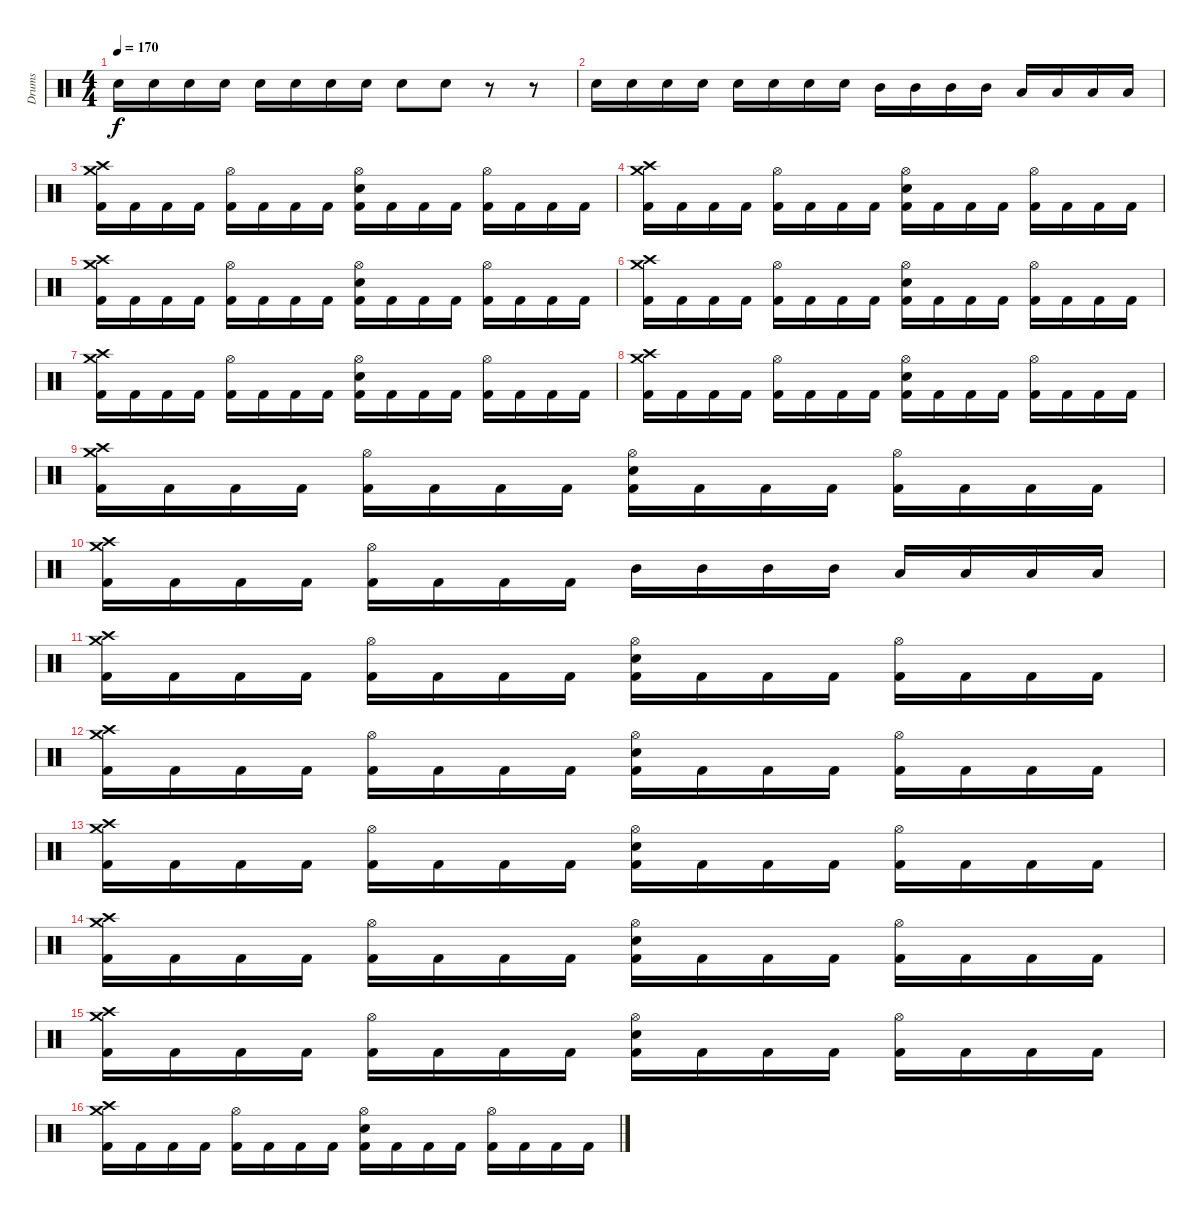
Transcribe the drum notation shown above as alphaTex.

\track ("Drums" "Drums") {instrument percussion}
\staff {score}
\articulation defaults
\ts (4 4)
\tempo 170
\clef neutral
\ks c "Snare (hit) 2".16{dy f} "Snare (hit) 2".16 "Snare (hit) 2".16 "Snare (hit) 2".16 "Snare (hit) 2".16 "Snare (hit) 2".16 "Snare (hit) 2".16 "Snare (hit) 2".16 "Snare (hit) 2".8 "Snare (hit) 2".8
r.8 r.8 |
"Snare (hit) 2".16 "Snare (hit) 2".16 "Snare (hit) 2".16 "Snare (hit) 2".16 "Snare (hit) 2".16 "Snare (hit) 2".16 "Snare (hit) 2".16 "Snare (hit) 2".16 "Mid Tom (hit)".16 "Mid Tom (hit)".16 "Mid Tom (hit)".16 "Mid Tom (hit)".16 "Low Tom (hit)".16 "Low Tom (hit)".16 "Low Tom (hit)".16 "Low Tom (hit)".16 |
("Crash medium (hit)" "Crash high (hit)" "Kick (hit) 2").16 "Kick (hit) 2".16 "Kick (hit) 2".16 "Kick (hit) 2".16 ("Hi-Hat (open)" "Kick (hit) 2").16 "Kick (hit) 2".16 "Kick (hit) 2".16 "Kick (hit) 2".16 ("Hi-Hat (open)" "Snare (hit) 2" "Kick (hit) 2").16 "Kick (hit) 2".16 "Kick (hit) 2".16 "Kick (hit) 2".16 ("Hi-Hat (open)" "Kick (hit) 2").16 "Kick (hit) 2".16 "Kick (hit) 2".16 "Kick (hit) 2".16 |
("Crash medium (hit)" "Crash high (hit)" "Kick (hit) 2").16 "Kick (hit) 2".16 "Kick (hit) 2".16 "Kick (hit) 2".16 ("Hi-Hat (open)" "Kick (hit) 2").16 "Kick (hit) 2".16 "Kick (hit) 2".16 "Kick (hit) 2".16 ("Hi-Hat (open)" "Snare (hit) 2" "Kick (hit) 2").16 "Kick (hit) 2".16 "Kick (hit) 2".16 "Kick (hit) 2".16 ("Hi-Hat (open)" "Kick (hit) 2").16 "Kick (hit) 2".16 "Kick (hit) 2".16 "Kick (hit) 2".16 |
("Crash medium (hit)" "Crash high (hit)" "Kick (hit) 2").16 "Kick (hit) 2".16 "Kick (hit) 2".16 "Kick (hit) 2".16 ("Hi-Hat (open)" "Kick (hit) 2").16 "Kick (hit) 2".16 "Kick (hit) 2".16 "Kick (hit) 2".16 ("Hi-Hat (open)" "Snare (hit) 2" "Kick (hit) 2").16 "Kick (hit) 2".16 "Kick (hit) 2".16 "Kick (hit) 2".16 ("Hi-Hat (open)" "Kick (hit) 2").16 "Kick (hit) 2".16 "Kick (hit) 2".16 "Kick (hit) 2".16 |
("Crash medium (hit)" "Crash high (hit)" "Kick (hit) 2").16 "Kick (hit) 2".16 "Kick (hit) 2".16 "Kick (hit) 2".16 ("Hi-Hat (open)" "Kick (hit) 2").16 "Kick (hit) 2".16 "Kick (hit) 2".16 "Kick (hit) 2".16 ("Hi-Hat (open)" "Snare (hit) 2" "Kick (hit) 2").16 "Kick (hit) 2".16 "Kick (hit) 2".16 "Kick (hit) 2".16 ("Hi-Hat (open)" "Kick (hit) 2").16 "Kick (hit) 2".16 "Kick (hit) 2".16 "Kick (hit) 2".16 |
("Crash medium (hit)" "Crash high (hit)" "Kick (hit) 2").16 "Kick (hit) 2".16 "Kick (hit) 2".16 "Kick (hit) 2".16 ("Hi-Hat (open)" "Kick (hit) 2").16 "Kick (hit) 2".16 "Kick (hit) 2".16 "Kick (hit) 2".16 ("Hi-Hat (open)" "Snare (hit) 2" "Kick (hit) 2").16 "Kick (hit) 2".16 "Kick (hit) 2".16 "Kick (hit) 2".16 ("Hi-Hat (open)" "Kick (hit) 2").16 "Kick (hit) 2".16 "Kick (hit) 2".16 "Kick (hit) 2".16 |
("Crash medium (hit)" "Crash high (hit)" "Kick (hit) 2").16 "Kick (hit) 2".16 "Kick (hit) 2".16 "Kick (hit) 2".16 ("Hi-Hat (open)" "Kick (hit) 2").16 "Kick (hit) 2".16 "Kick (hit) 2".16 "Kick (hit) 2".16 ("Hi-Hat (open)" "Snare (hit) 2" "Kick (hit) 2").16 "Kick (hit) 2".16 "Kick (hit) 2".16 "Kick (hit) 2".16 ("Hi-Hat (open)" "Kick (hit) 2").16 "Kick (hit) 2".16 "Kick (hit) 2".16 "Kick (hit) 2".16 |
("Crash medium (hit)" "Crash high (hit)" "Kick (hit) 2").16 "Kick (hit) 2".16 "Kick (hit) 2".16 "Kick (hit) 2".16 ("Hi-Hat (open)" "Kick (hit) 2").16 "Kick (hit) 2".16 "Kick (hit) 2".16 "Kick (hit) 2".16 ("Hi-Hat (open)" "Snare (hit) 2" "Kick (hit) 2").16 "Kick (hit) 2".16 "Kick (hit) 2".16 "Kick (hit) 2".16 ("Hi-Hat (open)" "Kick (hit) 2").16 "Kick (hit) 2".16 "Kick (hit) 2".16 "Kick (hit) 2".16 |
("Crash medium (hit)" "Crash high (hit)" "Kick (hit) 2").16 "Kick (hit) 2".16 "Kick (hit) 2".16 "Kick (hit) 2".16 ("Hi-Hat (open)" "Kick (hit) 2").16 "Kick (hit) 2".16 "Kick (hit) 2".16 "Kick (hit) 2".16 "Mid Tom (hit)".16 "Mid Tom (hit)".16 "Mid Tom (hit)".16 "Mid Tom (hit)".16 "Low Tom (hit)".16 "Low Tom (hit)".16 "Low Tom (hit)".16 "Low Tom (hit)".16 |
("Crash medium (hit)" "Crash high (hit)" "Kick (hit) 2").16 "Kick (hit) 2".16 "Kick (hit) 2".16 "Kick (hit) 2".16 ("Hi-Hat (open)" "Kick (hit) 2").16 "Kick (hit) 2".16 "Kick (hit) 2".16 "Kick (hit) 2".16 ("Hi-Hat (open)" "Snare (hit) 2" "Kick (hit) 2").16 "Kick (hit) 2".16 "Kick (hit) 2".16 "Kick (hit) 2".16 ("Hi-Hat (open)" "Kick (hit) 2").16 "Kick (hit) 2".16 "Kick (hit) 2".16 "Kick (hit) 2".16 |
("Crash medium (hit)" "Crash high (hit)" "Kick (hit) 2").16 "Kick (hit) 2".16 "Kick (hit) 2".16 "Kick (hit) 2".16 ("Hi-Hat (open)" "Kick (hit) 2").16 "Kick (hit) 2".16 "Kick (hit) 2".16 "Kick (hit) 2".16 ("Hi-Hat (open)" "Snare (hit) 2" "Kick (hit) 2").16 "Kick (hit) 2".16 "Kick (hit) 2".16 "Kick (hit) 2".16 ("Hi-Hat (open)" "Kick (hit) 2").16 "Kick (hit) 2".16 "Kick (hit) 2".16 "Kick (hit) 2".16 |
("Crash medium (hit)" "Crash high (hit)" "Kick (hit) 2").16 "Kick (hit) 2".16 "Kick (hit) 2".16 "Kick (hit) 2".16 ("Hi-Hat (open)" "Kick (hit) 2").16 "Kick (hit) 2".16 "Kick (hit) 2".16 "Kick (hit) 2".16 ("Hi-Hat (open)" "Snare (hit) 2" "Kick (hit) 2").16 "Kick (hit) 2".16 "Kick (hit) 2".16 "Kick (hit) 2".16 ("Hi-Hat (open)" "Kick (hit) 2").16 "Kick (hit) 2".16 "Kick (hit) 2".16 "Kick (hit) 2".16 |
("Crash medium (hit)" "Crash high (hit)" "Kick (hit) 2").16 "Kick (hit) 2".16 "Kick (hit) 2".16 "Kick (hit) 2".16 ("Hi-Hat (open)" "Kick (hit) 2").16 "Kick (hit) 2".16 "Kick (hit) 2".16 "Kick (hit) 2".16 ("Hi-Hat (open)" "Snare (hit) 2" "Kick (hit) 2").16 "Kick (hit) 2".16 "Kick (hit) 2".16 "Kick (hit) 2".16 ("Hi-Hat (open)" "Kick (hit) 2").16 "Kick (hit) 2".16 "Kick (hit) 2".16 "Kick (hit) 2".16 |
("Crash medium (hit)" "Crash high (hit)" "Kick (hit) 2").16 "Kick (hit) 2".16 "Kick (hit) 2".16 "Kick (hit) 2".16 ("Hi-Hat (open)" "Kick (hit) 2").16 "Kick (hit) 2".16 "Kick (hit) 2".16 "Kick (hit) 2".16 ("Hi-Hat (open)" "Snare (hit) 2" "Kick (hit) 2").16 "Kick (hit) 2".16 "Kick (hit) 2".16 "Kick (hit) 2".16 ("Hi-Hat (open)" "Kick (hit) 2").16 "Kick (hit) 2".16 "Kick (hit) 2".16 "Kick (hit) 2".16 |
("Crash medium (hit)" "Crash high (hit)" "Kick (hit) 2").16 "Kick (hit) 2".16 "Kick (hit) 2".16 "Kick (hit) 2".16 ("Hi-Hat (open)" "Kick (hit) 2").16 "Kick (hit) 2".16 "Kick (hit) 2".16 "Kick (hit) 2".16 ("Hi-Hat (open)" "Snare (hit) 2" "Kick (hit) 2").16 "Kick (hit) 2".16 "Kick (hit) 2".16 "Kick (hit) 2".16 ("Hi-Hat (open)" "Kick (hit) 2").16 "Kick (hit) 2".16 "Kick (hit) 2".16 "Kick (hit) 2".16
